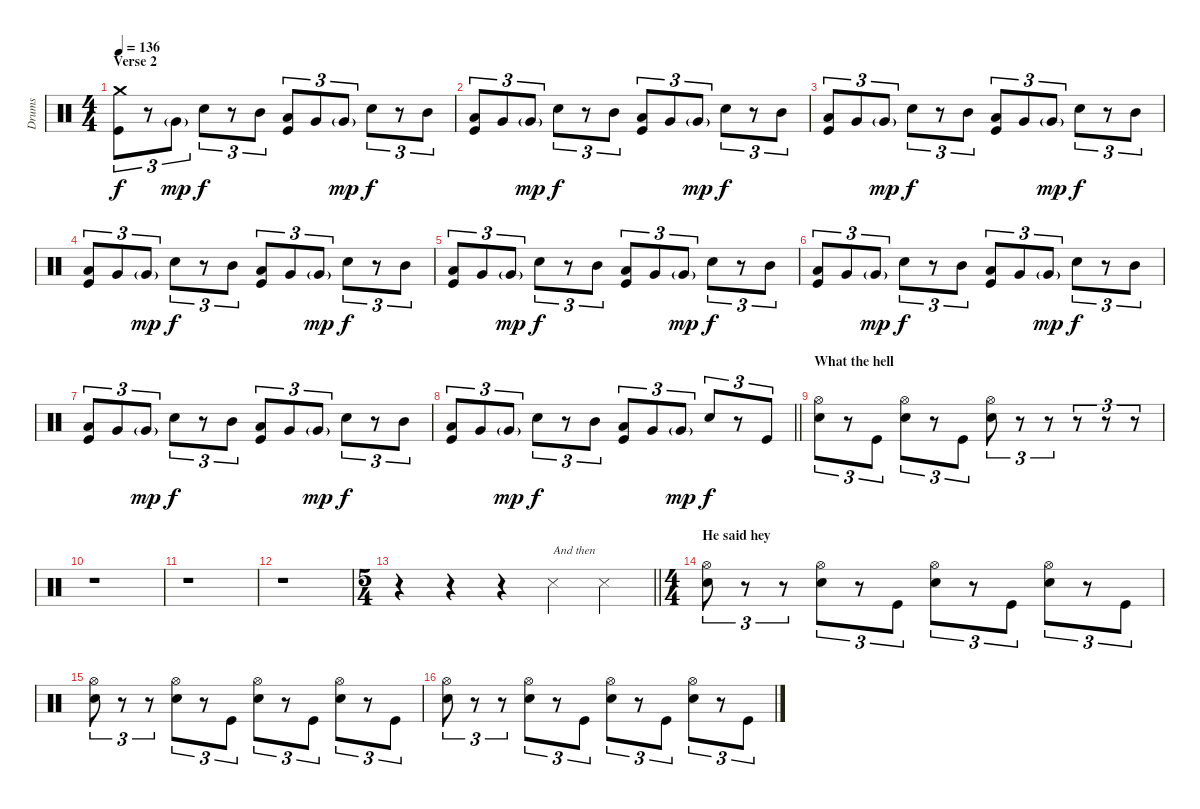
\track ("Drums" "Drums") {instrument percussion}
\staff {score}
\articulation defaults
\ts (4 4)
\section ("" "Verse 2")
\tempo 136
\clef neutral
\ks c
("Crash medium (hit)" "Kick (hit)").8{tu (3 2) dy f} r.8{tu (3 2)} "Very Low Tom (hit)"{g}.8{tu (3 2) dy mp} "Electric Snare (hit)".8{tu (3 2) dy f} r.8{tu (3 2)} "Mid Tom (hit)".8{tu (3 2)} ("Low Tom (hit)" "Kick (hit)").8{tu (3 2)} "Very Low Tom (hit)".8{tu (3 2)} "Very Low Tom (hit)"{g}.8{tu (3 2) dy mp} "Electric Snare (hit)".8{tu (3 2) dy f} r.8{tu (3 2)} "Mid Tom (hit)".8{tu (3 2)} |
("Low Tom (hit)" "Kick (hit)").8{tu (3 2)} "Very Low Tom (hit)".8{tu (3 2)} "Very Low Tom (hit)"{g}.8{tu (3 2) dy mp} "Electric Snare (hit)".8{tu (3 2) dy f} r.8{tu (3 2)} "Mid Tom (hit)".8{tu (3 2)} ("Low Tom (hit)" "Kick (hit)").8{tu (3 2)} "Very Low Tom (hit)".8{tu (3 2)} "Very Low Tom (hit)"{g}.8{tu (3 2) dy mp} "Electric Snare (hit)".8{tu (3 2) dy f} r.8{tu (3 2)} "Mid Tom (hit)".8{tu (3 2)} |
("Low Tom (hit)" "Kick (hit)").8{tu (3 2)} "Very Low Tom (hit)".8{tu (3 2)} "Very Low Tom (hit)"{g}.8{tu (3 2) dy mp} "Electric Snare (hit)".8{tu (3 2) dy f} r.8{tu (3 2)} "Mid Tom (hit)".8{tu (3 2)} ("Low Tom (hit)" "Kick (hit)").8{tu (3 2)} "Very Low Tom (hit)".8{tu (3 2)} "Very Low Tom (hit)"{g}.8{tu (3 2) dy mp} "Electric Snare (hit)".8{tu (3 2) dy f} r.8{tu (3 2)} "Mid Tom (hit)".8{tu (3 2)} |
("Low Tom (hit)" "Kick (hit)").8{tu (3 2)} "Very Low Tom (hit)".8{tu (3 2)} "Very Low Tom (hit)"{g}.8{tu (3 2) dy mp} "Electric Snare (hit)".8{tu (3 2) dy f} r.8{tu (3 2)} "Mid Tom (hit)".8{tu (3 2)} ("Low Tom (hit)" "Kick (hit)").8{tu (3 2)} "Very Low Tom (hit)".8{tu (3 2)} "Very Low Tom (hit)"{g}.8{tu (3 2) dy mp} "Electric Snare (hit)".8{tu (3 2) dy f} r.8{tu (3 2)} "Mid Tom (hit)".8{tu (3 2)} |
("Low Tom (hit)" "Kick (hit)").8{tu (3 2)} "Very Low Tom (hit)".8{tu (3 2)} "Very Low Tom (hit)"{g}.8{tu (3 2) dy mp} "Electric Snare (hit)".8{tu (3 2) dy f} r.8{tu (3 2)} "Mid Tom (hit)".8{tu (3 2)} ("Low Tom (hit)" "Kick (hit)").8{tu (3 2)} "Very Low Tom (hit)".8{tu (3 2)} "Very Low Tom (hit)"{g}.8{tu (3 2) dy mp} "Electric Snare (hit)".8{tu (3 2) dy f} r.8{tu (3 2)} "Mid Tom (hit)".8{tu (3 2)} |
("Low Tom (hit)" "Kick (hit)").8{tu (3 2)} "Very Low Tom (hit)".8{tu (3 2)} "Very Low Tom (hit)"{g}.8{tu (3 2) dy mp} "Electric Snare (hit)".8{tu (3 2) dy f} r.8{tu (3 2)} "Mid Tom (hit)".8{tu (3 2)} ("Low Tom (hit)" "Kick (hit)").8{tu (3 2)} "Very Low Tom (hit)".8{tu (3 2)} "Very Low Tom (hit)"{g}.8{tu (3 2) dy mp} "Electric Snare (hit)".8{tu (3 2) dy f} r.8{tu (3 2)} "Mid Tom (hit)".8{tu (3 2)} |
("Low Tom (hit)" "Kick (hit)").8{tu (3 2)} "Very Low Tom (hit)".8{tu (3 2)} "Very Low Tom (hit)"{g}.8{tu (3 2) dy mp} "Electric Snare (hit)".8{tu (3 2) dy f} r.8{tu (3 2)} "Mid Tom (hit)".8{tu (3 2)} ("Low Tom (hit)" "Kick (hit)").8{tu (3 2)} "Very Low Tom (hit)".8{tu (3 2)} "Very Low Tom (hit)"{g}.8{tu (3 2) dy mp} "Electric Snare (hit)".8{tu (3 2) dy f} r.8{tu (3 2)} "Mid Tom (hit)".8{tu (3 2)} |
\barLineRight lightlight
("Low Tom (hit)" "Kick (hit)").8{tu (3 2)} "Very Low Tom (hit)".8{tu (3 2)} "Very Low Tom (hit)"{g}.8{tu (3 2) dy mp} "Electric Snare (hit)".8{tu (3 2) dy f} r.8{tu (3 2)} "Mid Tom (hit)".8{tu (3 2)} ("Low Tom (hit)" "Kick (hit)").8{tu (3 2)} "Very Low Tom (hit)".8{tu (3 2)} "Very Low Tom (hit)"{g}.8{tu (3 2) dy mp} "Electric Snare (hit)".8{tu (3 2) dy f} r.8{tu (3 2)} "Kick (hit)".8{tu (3 2)} |
\section ("" "What the hell")
("Hi-Hat (open)" "Electric Snare (hit)").8{tu (3 2)} r.8{tu (3 2)} "Kick (hit)".8{tu (3 2)} ("Hi-Hat (open)" "Electric Snare (hit)").8{tu (3 2)} r.8{tu (3 2)} "Kick (hit)".8{tu (3 2)} ("Hi-Hat (open)" "Electric Snare (hit)").8{tu (3 2)} r.8{tu (3 2)} r.8{tu (3 2)} r.8{tu (3 2)} r.8{tu (3 2)} r.8{tu (3 2)} |
r.1 |
r.1 |
r.1 |
\ts (5 4)
\barLineRight lightlight
r.4 r.4 r.4 "Snare (side stick) 3".4{txt "And then"} "Snare (side stick) 3".4 |
\ts (4 4)
\section ("" "He said hey")
("Hi-Hat (open)" "Electric Snare (hit)").8{tu (3 2)} r.8{tu (3 2)} r.8{tu (3 2)} ("Hi-Hat (open)" "Electric Snare (hit)").8{tu (3 2)} r.8{tu (3 2)} "Kick (hit)".8{tu (3 2)} ("Hi-Hat (open)" "Electric Snare (hit)").8{tu (3 2)} r.8{tu (3 2)} "Kick (hit)".8{tu (3 2)} ("Hi-Hat (open)" "Electric Snare (hit)").8{tu (3 2)} r.8{tu (3 2)} "Kick (hit)".8{tu (3 2)} |
("Hi-Hat (open)" "Electric Snare (hit)").8{tu (3 2)} r.8{tu (3 2)} r.8{tu (3 2)} ("Hi-Hat (open)" "Electric Snare (hit)").8{tu (3 2)} r.8{tu (3 2)} "Kick (hit)".8{tu (3 2)} ("Hi-Hat (open)" "Electric Snare (hit)").8{tu (3 2)} r.8{tu (3 2)} "Kick (hit)".8{tu (3 2)} ("Hi-Hat (open)" "Electric Snare (hit)").8{tu (3 2)} r.8{tu (3 2)} "Kick (hit)".8{tu (3 2)} |
("Hi-Hat (open)" "Electric Snare (hit)").8{tu (3 2)} r.8{tu (3 2)} r.8{tu (3 2)} ("Hi-Hat (open)" "Electric Snare (hit)").8{tu (3 2)} r.8{tu (3 2)} "Kick (hit)".8{tu (3 2)} ("Hi-Hat (open)" "Electric Snare (hit)").8{tu (3 2)} r.8{tu (3 2)} "Kick (hit)".8{tu (3 2)} ("Hi-Hat (open)" "Electric Snare (hit)").8{tu (3 2)} r.8{tu (3 2)} "Kick (hit)".8{tu (3 2)}
